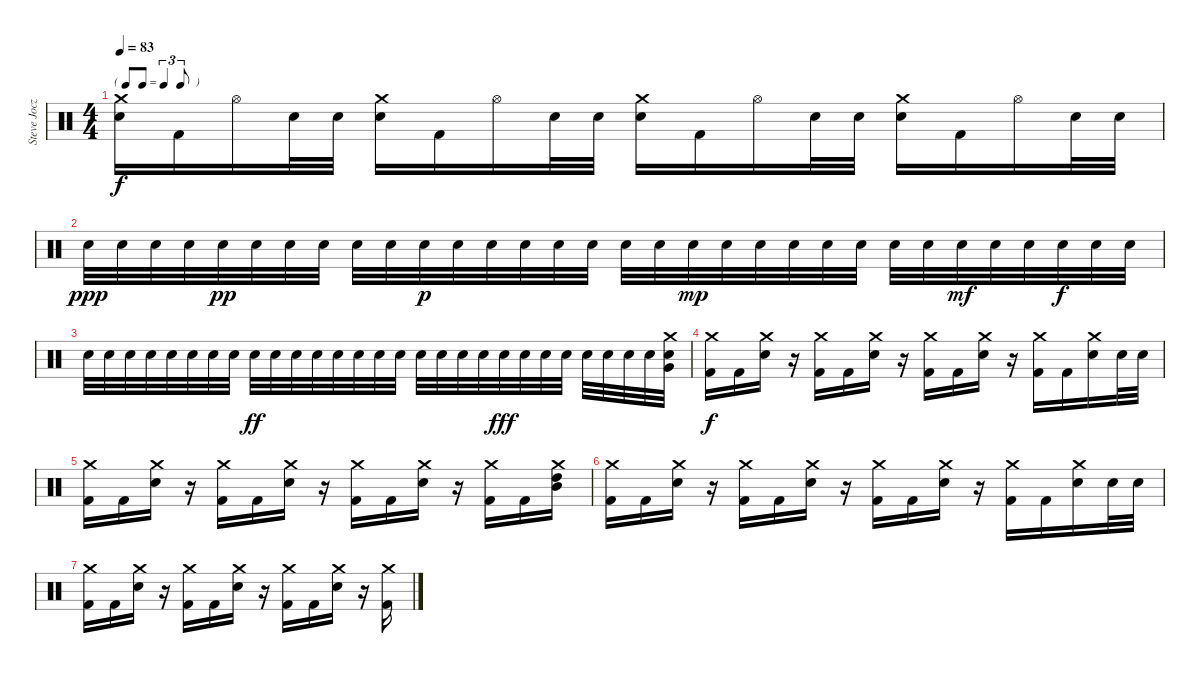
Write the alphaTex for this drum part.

\track ("Steve Jocz" "Steve Jocz") {instrument percussion}
\staff {score}
\articulation defaults
\ts (4 4)
\tf triplet8th
\tempo 83
\clef neutral
\ks c
("Crash medium (hit)" "Electric Snare (hit)").16{dy f} "Kick (hit) 2".16 "Hi-Hat (open)".16 "Electric Snare (hit)".32 "Electric Snare (hit)".32 ("Crash medium (hit)" "Electric Snare (hit)").16 "Kick (hit) 2".16 "Hi-Hat (open)".16 "Electric Snare (hit)".32 "Electric Snare (hit)".32 ("Electric Snare (hit)" "Crash medium (hit)").16 "Kick (hit) 2".16 "Hi-Hat (open)".16 "Electric Snare (hit)".32 "Electric Snare (hit)".32 ("Electric Snare (hit)" "Crash medium (hit)").16 "Kick (hit) 2".16 "Hi-Hat (open)".16 "Electric Snare (hit)".32 "Electric Snare (hit)".32 |
"Electric Snare (hit)".32{dy ppp} "Electric Snare (hit)".32 "Electric Snare (hit)".32 "Electric Snare (hit)".32 "Electric Snare (hit)".32{dy pp} "Electric Snare (hit)".32 "Electric Snare (hit)".32 "Electric Snare (hit)".32 "Electric Snare (hit)".32 "Electric Snare (hit)".32 "Electric Snare (hit)".32{dy p} "Electric Snare (hit)".32 "Electric Snare (hit)".32 "Electric Snare (hit)".32 "Electric Snare (hit)".32 "Electric Snare (hit)".32 "Electric Snare (hit)".32 "Electric Snare (hit)".32 "Electric Snare (hit)".32{dy mp} "Electric Snare (hit)".32 "Electric Snare (hit)".32 "Electric Snare (hit)".32 "Electric Snare (hit)".32 "Electric Snare (hit)".32 "Electric Snare (hit)".32 "Electric Snare (hit)".32 "Electric Snare (hit)".32{dy mf} "Electric Snare (hit)".32 "Electric Snare (hit)".32 "Electric Snare (hit)".32{dy f} "Electric Snare (hit)".32 "Electric Snare (hit)".32 |
"Electric Snare (hit)".32 "Electric Snare (hit)".32 "Electric Snare (hit)".32 "Electric Snare (hit)".32 "Electric Snare (hit)".32 "Electric Snare (hit)".32 "Electric Snare (hit)".32 "Electric Snare (hit)".32 "Electric Snare (hit)".32{dy ff} "Electric Snare (hit)".32 "Electric Snare (hit)".32 "Electric Snare (hit)".32 "Electric Snare (hit)".32 "Electric Snare (hit)".32 "Electric Snare (hit)".32 "Electric Snare (hit)".32 "Electric Snare (hit)".32 "Electric Snare (hit)".32 "Electric Snare (hit)".32 "Electric Snare (hit)".32 "Electric Snare (hit)".32{dy fff} "Electric Snare (hit)".32 "Electric Snare (hit)".32 "Electric Snare (hit)".32 "Electric Snare (hit)".32 "Electric Snare (hit)".32 "Electric Snare (hit)".32 "Electric Snare (hit)".32 ("Crash medium (hit)" "Electric Snare (hit)" "Very Low Tom (hit)").32 |
("Crash medium (hit)" "Kick (hit) 2").16{dy f} "Kick (hit) 2".16 ("Crash medium (hit)" "Electric Snare (hit)").16 r.16 ("Crash medium (hit)" "Kick (hit) 2").16 "Kick (hit) 2".16 ("Crash medium (hit)" "Electric Snare (hit)").16 r.16 ("Crash medium (hit)" "Kick (hit) 2").16 "Kick (hit) 2".16 ("Crash medium (hit)" "Electric Snare (hit)").16 r.16 ("Crash medium (hit)" "Kick (hit) 2").16 "Kick (hit) 2".16 ("Crash medium (hit)" "Electric Snare (hit)").16 "Electric Snare (hit)".32 "Electric Snare (hit)".32 |
("Crash medium (hit)" "Kick (hit) 2").16 "Kick (hit) 2".16 ("Crash medium (hit)" "Electric Snare (hit)").16 r.16 ("Crash medium (hit)" "Kick (hit) 2").16 "Kick (hit) 2".16 ("Crash medium (hit)" "Electric Snare (hit)").16 r.16 ("Crash medium (hit)" "Kick (hit) 2").16 "Kick (hit) 2".16 ("Crash medium (hit)" "Electric Snare (hit)").16 r.16 ("Crash medium (hit)" "Kick (hit) 2").16 "Kick (hit) 2".16 ("Crash medium (hit)" "Mid Tom (hit)" "High Tom (hit)").16 |
("Crash medium (hit)" "Kick (hit) 2").16 "Kick (hit) 2".16 ("Crash medium (hit)" "Electric Snare (hit)").16 r.16 ("Crash medium (hit)" "Kick (hit) 2").16 "Kick (hit) 2".16 ("Crash medium (hit)" "Electric Snare (hit)").16 r.16 ("Crash medium (hit)" "Kick (hit) 2").16 "Kick (hit) 2".16 ("Crash medium (hit)" "Electric Snare (hit)").16 r.16 ("Crash medium (hit)" "Kick (hit) 2").16 "Kick (hit) 2".16 ("Crash medium (hit)" "Electric Snare (hit)").16 "Electric Snare (hit)".32 "Electric Snare (hit)".32 |
("Crash medium (hit)" "Kick (hit) 2").16 "Kick (hit) 2".16 ("Crash medium (hit)" "Electric Snare (hit)").16 r.16 ("Crash medium (hit)" "Kick (hit) 2").16 "Kick (hit) 2".16 ("Crash medium (hit)" "Electric Snare (hit)").16 r.16 ("Crash medium (hit)" "Kick (hit) 2").16 "Kick (hit) 2".16 ("Crash medium (hit)" "Electric Snare (hit)").16 r.16 ("Crash medium (hit)" "Kick (hit) 2").16
